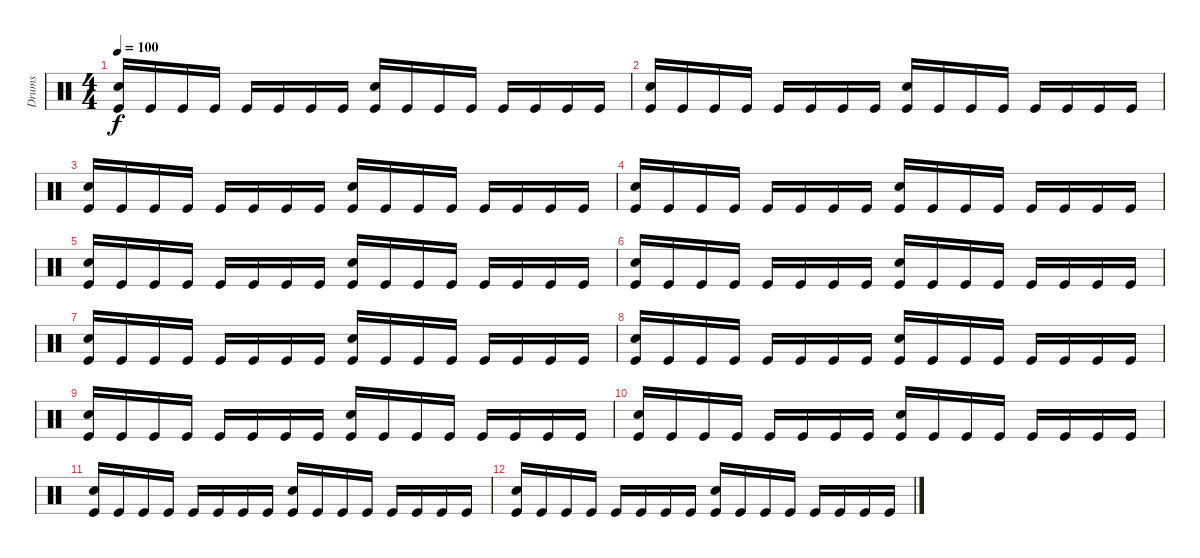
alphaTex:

\track ("Drums" "Drums") {instrument percussion}
\staff {score}
\articulation defaults
\ts (4 4)
\tempo 100
\clef neutral
\ks c
("Electric Snare (hit)" "Kick (hit)").16{dy f volume 10} "Kick (hit)".16 "Kick (hit)".16 "Kick (hit)".16 "Kick (hit)".16 "Kick (hit)".16 "Kick (hit)".16 "Kick (hit)".16 ("Electric Snare (hit)" "Kick (hit)").16 "Kick (hit)".16 "Kick (hit)".16 "Kick (hit)".16 "Kick (hit)".16 "Kick (hit)".16 "Kick (hit)".16 "Kick (hit)".16 |
("Electric Snare (hit)" "Kick (hit)").16 "Kick (hit)".16 "Kick (hit)".16 "Kick (hit)".16 "Kick (hit)".16 "Kick (hit)".16 "Kick (hit)".16 "Kick (hit)".16 ("Electric Snare (hit)" "Kick (hit)").16 "Kick (hit)".16 "Kick (hit)".16 "Kick (hit)".16 "Kick (hit)".16 "Kick (hit)".16 "Kick (hit)".16 "Kick (hit)".16 |
("Electric Snare (hit)" "Kick (hit)").16 "Kick (hit)".16 "Kick (hit)".16 "Kick (hit)".16 "Kick (hit)".16 "Kick (hit)".16 "Kick (hit)".16 "Kick (hit)".16 ("Electric Snare (hit)" "Kick (hit)").16 "Kick (hit)".16 "Kick (hit)".16 "Kick (hit)".16 "Kick (hit)".16 "Kick (hit)".16 "Kick (hit)".16 "Kick (hit)".16 |
("Electric Snare (hit)" "Kick (hit)").16 "Kick (hit)".16 "Kick (hit)".16 "Kick (hit)".16 "Kick (hit)".16 "Kick (hit)".16 "Kick (hit)".16 "Kick (hit)".16 ("Electric Snare (hit)" "Kick (hit)").16 "Kick (hit)".16 "Kick (hit)".16 "Kick (hit)".16 "Kick (hit)".16 "Kick (hit)".16 "Kick (hit)".16 "Kick (hit)".16 |
("Electric Snare (hit)" "Kick (hit)").16{volume 6} "Kick (hit)".16 "Kick (hit)".16 "Kick (hit)".16 "Kick (hit)".16 "Kick (hit)".16 "Kick (hit)".16 "Kick (hit)".16 ("Electric Snare (hit)" "Kick (hit)").16 "Kick (hit)".16 "Kick (hit)".16 "Kick (hit)".16 "Kick (hit)".16 "Kick (hit)".16 "Kick (hit)".16 "Kick (hit)".16 |
("Electric Snare (hit)" "Kick (hit)").16 "Kick (hit)".16 "Kick (hit)".16 "Kick (hit)".16 "Kick (hit)".16 "Kick (hit)".16 "Kick (hit)".16 "Kick (hit)".16 ("Electric Snare (hit)" "Kick (hit)").16 "Kick (hit)".16 "Kick (hit)".16 "Kick (hit)".16 "Kick (hit)".16 "Kick (hit)".16 "Kick (hit)".16 "Kick (hit)".16 |
("Electric Snare (hit)" "Kick (hit)").16 "Kick (hit)".16 "Kick (hit)".16 "Kick (hit)".16 "Kick (hit)".16 "Kick (hit)".16 "Kick (hit)".16 "Kick (hit)".16 ("Electric Snare (hit)" "Kick (hit)").16 "Kick (hit)".16 "Kick (hit)".16 "Kick (hit)".16 "Kick (hit)".16 "Kick (hit)".16 "Kick (hit)".16 "Kick (hit)".16 |
("Electric Snare (hit)" "Kick (hit)").16 "Kick (hit)".16 "Kick (hit)".16 "Kick (hit)".16 "Kick (hit)".16 "Kick (hit)".16 "Kick (hit)".16 "Kick (hit)".16 ("Electric Snare (hit)" "Kick (hit)").16 "Kick (hit)".16 "Kick (hit)".16 "Kick (hit)".16 "Kick (hit)".16 "Kick (hit)".16 "Kick (hit)".16 "Kick (hit)".16 |
("Electric Snare (hit)" "Kick (hit)").16{volume 0} "Kick (hit)".16 "Kick (hit)".16 "Kick (hit)".16 "Kick (hit)".16 "Kick (hit)".16 "Kick (hit)".16 "Kick (hit)".16 ("Electric Snare (hit)" "Kick (hit)").16 "Kick (hit)".16 "Kick (hit)".16 "Kick (hit)".16 "Kick (hit)".16 "Kick (hit)".16 "Kick (hit)".16 "Kick (hit)".16 |
("Electric Snare (hit)" "Kick (hit)").16 "Kick (hit)".16 "Kick (hit)".16 "Kick (hit)".16 "Kick (hit)".16 "Kick (hit)".16 "Kick (hit)".16 "Kick (hit)".16 ("Electric Snare (hit)" "Kick (hit)").16 "Kick (hit)".16 "Kick (hit)".16 "Kick (hit)".16 "Kick (hit)".16 "Kick (hit)".16 "Kick (hit)".16 "Kick (hit)".16 |
("Electric Snare (hit)" "Kick (hit)").16 "Kick (hit)".16 "Kick (hit)".16 "Kick (hit)".16 "Kick (hit)".16 "Kick (hit)".16 "Kick (hit)".16 "Kick (hit)".16 ("Electric Snare (hit)" "Kick (hit)").16 "Kick (hit)".16 "Kick (hit)".16 "Kick (hit)".16 "Kick (hit)".16 "Kick (hit)".16 "Kick (hit)".16 "Kick (hit)".16 |
("Electric Snare (hit)" "Kick (hit)").16 "Kick (hit)".16 "Kick (hit)".16 "Kick (hit)".16 "Kick (hit)".16 "Kick (hit)".16 "Kick (hit)".16 "Kick (hit)".16 ("Electric Snare (hit)" "Kick (hit)").16 "Kick (hit)".16 "Kick (hit)".16 "Kick (hit)".16 "Kick (hit)".16 "Kick (hit)".16 "Kick (hit)".16 "Kick (hit)".16
